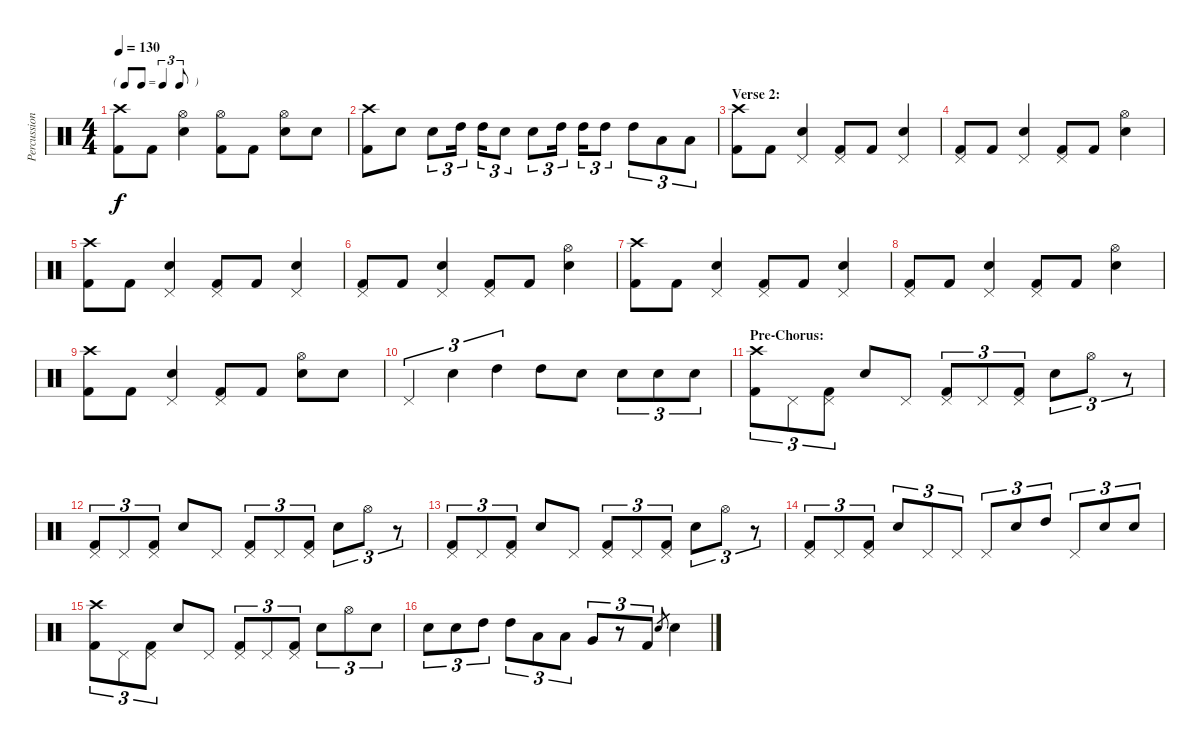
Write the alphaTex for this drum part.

\track ("Percussion" "Percussion") {instrument percussion}
\staff {score}
\articulation defaults
\ts (4 4)
\tf triplet8th
\tempo 130
\clef neutral
\ks c
("Crash high (hit)" "Kick (hit) 2").8{dy f} "Kick (hit) 2".8 ("Hi-Hat (open)" "Electric Snare (hit)").4 ("Hi-Hat (open)" "Kick (hit) 2").8 "Kick (hit) 2".8 ("Hi-Hat (open)" "Electric Snare (hit)").8 "Electric Snare (hit)".8 |
("Crash high (hit)" "Kick (hit) 2").8 "Electric Snare (hit)".8 "Electric Snare (hit)".8{tu (3 2)} "High Tom (hit)".16{tu (3 2)} "High Tom (hit)".16{tu (3 2)} "Electric Snare (hit)".8{tu (3 2)} "Electric Snare (hit)".8{tu (3 2)} "High Tom (hit)".16{tu (3 2)} "High Tom (hit)".16{tu (3 2)} "High Tom (hit)".8{tu (3 2)} "High Tom (hit)".8{tu (3 2)} "Low Tom (hit)".8{tu (3 2)} "Low Tom (hit)".8{tu (3 2)} |
\section ("" "Verse 2:")
("Crash high (hit)" "Kick (hit) 2").8 "Kick (hit) 2".8 ("Pedal Hi-Hat (hit)" "Electric Snare (hit)").4 ("Pedal Hi-Hat (hit)" "Kick (hit) 2").8 "Kick (hit) 2".8 ("Pedal Hi-Hat (hit)" "Electric Snare (hit)").4 |
("Pedal Hi-Hat (hit)" "Kick (hit) 2").8 "Kick (hit) 2".8 ("Pedal Hi-Hat (hit)" "Electric Snare (hit)").4 ("Pedal Hi-Hat (hit)" "Kick (hit) 2").8 "Kick (hit) 2".8 ("Hi-Hat (open)" "Electric Snare (hit)").4 |
("Crash high (hit)" "Kick (hit) 2").8 "Kick (hit) 2".8 ("Pedal Hi-Hat (hit)" "Electric Snare (hit)").4 ("Pedal Hi-Hat (hit)" "Kick (hit) 2").8 "Kick (hit) 2".8 ("Pedal Hi-Hat (hit)" "Electric Snare (hit)").4 |
("Pedal Hi-Hat (hit)" "Kick (hit) 2").8 "Kick (hit) 2".8 ("Pedal Hi-Hat (hit)" "Electric Snare (hit)").4 ("Pedal Hi-Hat (hit)" "Kick (hit) 2").8 "Kick (hit) 2".8 ("Hi-Hat (open)" "Electric Snare (hit)").4 |
("Crash high (hit)" "Kick (hit) 2").8 "Kick (hit) 2".8 ("Pedal Hi-Hat (hit)" "Electric Snare (hit)").4 ("Pedal Hi-Hat (hit)" "Kick (hit) 2").8 "Kick (hit) 2".8 ("Pedal Hi-Hat (hit)" "Electric Snare (hit)").4 |
("Pedal Hi-Hat (hit)" "Kick (hit) 2").8 "Kick (hit) 2".8 ("Pedal Hi-Hat (hit)" "Electric Snare (hit)").4 ("Pedal Hi-Hat (hit)" "Kick (hit) 2").8 "Kick (hit) 2".8 ("Hi-Hat (open)" "Electric Snare (hit)").4 |
("Crash high (hit)" "Kick (hit) 2").8 "Kick (hit) 2".8 ("Pedal Hi-Hat (hit)" "Electric Snare (hit)").4 ("Pedal Hi-Hat (hit)" "Kick (hit) 2").8 "Kick (hit) 2".8 ("Hi-Hat (open)" "Electric Snare (hit)").8 "Electric Snare (hit)".8 |
"Pedal Hi-Hat (hit)".4{tu (3 2)} "Electric Snare (hit)".4{tu (3 2)} "High Tom (hit)".4{tu (3 2)} "High Tom (hit)".8 "Electric Snare (hit)".8 "Electric Snare (hit)".8{tu (3 2)} "Electric Snare (hit)".8{tu (3 2)} "Electric Snare (hit)".8{tu (3 2)} |
\section ("" "Pre-Chorus:")
("Crash high (hit)" "Kick (hit) 2").8{tu (3 2)} "Pedal Hi-Hat (hit)".8{tu (3 2)} ("Pedal Hi-Hat (hit)" "Kick (hit) 2").8{tu (3 2)} "Electric Snare (hit)".8 "Pedal Hi-Hat (hit)".8 ("Pedal Hi-Hat (hit)" "Kick (hit) 2").8{tu (3 2)} "Pedal Hi-Hat (hit)".8{tu (3 2)} ("Pedal Hi-Hat (hit)" "Kick (hit) 2").8{tu (3 2)} "Electric Snare (hit)".8{tu (3 2)} "Hi-Hat (open)".8{tu (3 2)} r.8{tu (3 2)} |
("Pedal Hi-Hat (hit)" "Kick (hit) 2").8{tu (3 2)} "Pedal Hi-Hat (hit)".8{tu (3 2)} ("Pedal Hi-Hat (hit)" "Kick (hit) 2").8{tu (3 2)} "Electric Snare (hit)".8 "Pedal Hi-Hat (hit)".8 ("Pedal Hi-Hat (hit)" "Kick (hit) 2").8{tu (3 2)} "Pedal Hi-Hat (hit)".8{tu (3 2)} ("Pedal Hi-Hat (hit)" "Kick (hit) 2").8{tu (3 2)} "Electric Snare (hit)".8{tu (3 2)} "Hi-Hat (open)".8{tu (3 2)} r.8{tu (3 2)} |
("Pedal Hi-Hat (hit)" "Kick (hit) 2").8{tu (3 2)} "Pedal Hi-Hat (hit)".8{tu (3 2)} ("Pedal Hi-Hat (hit)" "Kick (hit) 2").8{tu (3 2)} "Electric Snare (hit)".8 "Pedal Hi-Hat (hit)".8 ("Pedal Hi-Hat (hit)" "Kick (hit) 2").8{tu (3 2)} "Pedal Hi-Hat (hit)".8{tu (3 2)} ("Pedal Hi-Hat (hit)" "Kick (hit) 2").8{tu (3 2)} "Electric Snare (hit)".8{tu (3 2)} "Hi-Hat (open)".8{tu (3 2)} r.8{tu (3 2)} |
("Pedal Hi-Hat (hit)" "Kick (hit) 2").8{tu (3 2)} "Pedal Hi-Hat (hit)".8{tu (3 2)} ("Pedal Hi-Hat (hit)" "Kick (hit) 2").8{tu (3 2)} "Electric Snare (hit)".8{tu (3 2)} "Pedal Hi-Hat (hit)".8{tu (3 2)} "Pedal Hi-Hat (hit)".8{tu (3 2)} "Pedal Hi-Hat (hit)".8{tu (3 2)} "Electric Snare (hit)".8{tu (3 2)} "High Tom (hit)".8{tu (3 2)} "Pedal Hi-Hat (hit)".8{tu (3 2)} "Electric Snare (hit)".8{tu (3 2)} "Electric Snare (hit)".8{tu (3 2)} |
("Crash high (hit)" "Kick (hit) 2").8{tu (3 2)} "Pedal Hi-Hat (hit)".8{tu (3 2)} ("Pedal Hi-Hat (hit)" "Kick (hit) 2").8{tu (3 2)} "Electric Snare (hit)".8 "Pedal Hi-Hat (hit)".8 ("Pedal Hi-Hat (hit)" "Kick (hit) 2").8{tu (3 2)} "Pedal Hi-Hat (hit)".8{tu (3 2)} ("Pedal Hi-Hat (hit)" "Kick (hit) 2").8{tu (3 2)} "Electric Snare (hit)".8{tu (3 2)} "Hi-Hat (open)".8{tu (3 2)} "Electric Snare (hit)".8{tu (3 2)} |
"Electric Snare (hit)".8{tu (3 2)} "Electric Snare (hit)".8{tu (3 2)} "High Tom (hit)".8{tu (3 2)} "High Tom (hit)".8{tu (3 2)} "Low Tom (hit)".8{tu (3 2)} "Low Tom (hit)".8{tu (3 2)} "Very Low Tom (hit)".8{tu (3 2)} r.8{tu (3 2)} "Kick (hit) 2".8{tu (3 2)} "Electric Snare (hit)".8{gr} "Electric Snare (hit)".4
